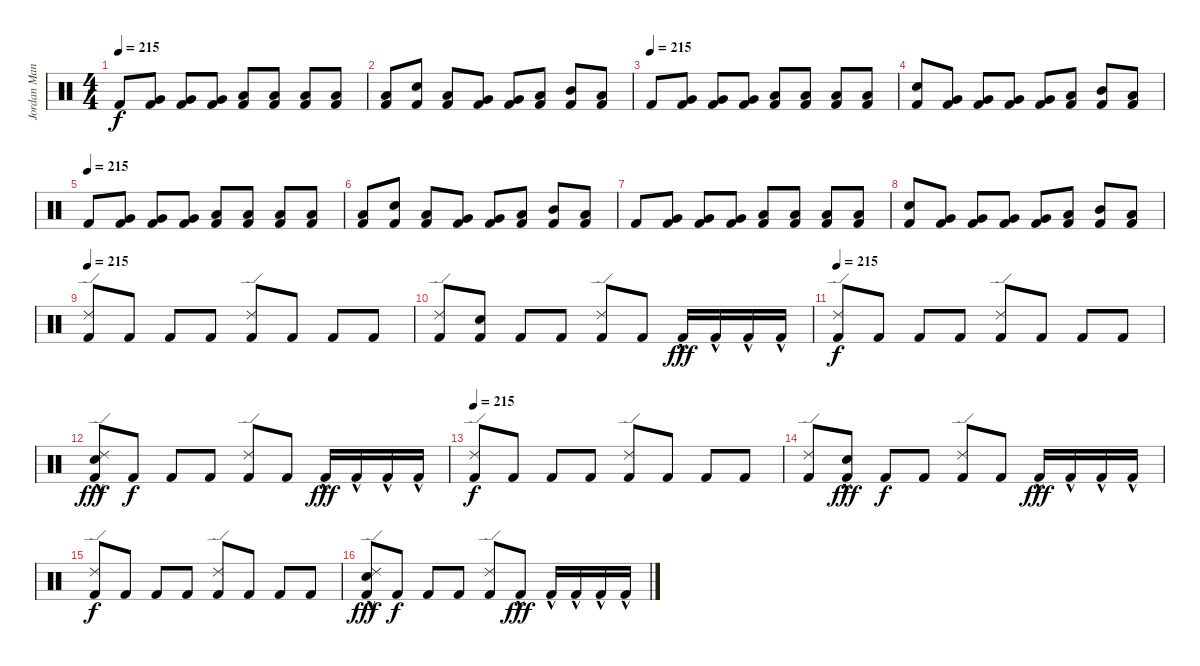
\track ("Jordan Mancino" "Jordan Man") {instrument percussion}
\staff {score}
\articulation defaults
\ts (4 4)
\tempo 215
\clef neutral
\ks c "Kick (hit) 2".8{dy f}
("Very Low Tom (hit)" "Kick (hit) 2").8 ("Very Low Tom (hit)" "Kick (hit) 2").8 ("Very Low Tom (hit)" "Kick (hit) 2").8 ("Low Tom (hit)" "Kick (hit) 2").8 ("Low Tom (hit)" "Kick (hit) 2").8 ("Low Tom (hit)" "Kick (hit) 2").8 ("Low Tom (hit)" "Kick (hit) 2").8 |
("Low Tom (hit)" "Kick (hit) 2").8 ("Electric Snare (hit)" "Kick (hit) 2").8 ("Low Tom (hit)" "Kick (hit) 2").8 ("Very Low Tom (hit)" "Kick (hit) 2").8 ("Very Low Tom (hit)" "Kick (hit) 2").8 ("Low Tom (hit)" "Kick (hit) 2").8 ("Mid Tom (hit)" "Kick (hit) 2").8 ("Low Tom (hit)" "Kick (hit) 2").8 |
\tempo (215)
"Kick (hit) 2".8 ("Very Low Tom (hit)" "Kick (hit) 2").8 ("Very Low Tom (hit)" "Kick (hit) 2").8 ("Very Low Tom (hit)" "Kick (hit) 2").8 ("Low Tom (hit)" "Kick (hit) 2").8 ("Low Tom (hit)" "Kick (hit) 2").8 ("Low Tom (hit)" "Kick (hit) 2").8 ("Low Tom (hit)" "Kick (hit) 2").8 |
("Electric Snare (hit)" "Kick (hit) 2").8 ("Very Low Tom (hit)" "Kick (hit) 2").8 ("Very Low Tom (hit)" "Kick (hit) 2").8 ("Very Low Tom (hit)" "Kick (hit) 2").8 ("Very Low Tom (hit)" "Kick (hit) 2").8 ("Low Tom (hit)" "Kick (hit) 2").8 ("Mid Tom (hit)" "Kick (hit) 2").8 ("Low Tom (hit)" "Kick (hit) 2").8 |
\tempo (215)
"Kick (hit) 2".8 ("Very Low Tom (hit)" "Kick (hit) 2").8 ("Very Low Tom (hit)" "Kick (hit) 2").8 ("Very Low Tom (hit)" "Kick (hit) 2").8 ("Low Tom (hit)" "Kick (hit) 2").8 ("Low Tom (hit)" "Kick (hit) 2").8 ("Low Tom (hit)" "Kick (hit) 2").8 ("Low Tom (hit)" "Kick (hit) 2").8 |
("Low Tom (hit)" "Kick (hit) 2").8 ("Electric Snare (hit)" "Kick (hit) 2").8 ("Low Tom (hit)" "Kick (hit) 2").8 ("Very Low Tom (hit)" "Kick (hit) 2").8 ("Very Low Tom (hit)" "Kick (hit) 2").8 ("Low Tom (hit)" "Kick (hit) 2").8 ("Mid Tom (hit)" "Kick (hit) 2").8 ("Low Tom (hit)" "Kick (hit) 2").8 |
"Kick (hit) 2".8 ("Very Low Tom (hit)" "Kick (hit) 2").8 ("Very Low Tom (hit)" "Kick (hit) 2").8 ("Very Low Tom (hit)" "Kick (hit) 2").8 ("Low Tom (hit)" "Kick (hit) 2").8 ("Low Tom (hit)" "Kick (hit) 2").8 ("Low Tom (hit)" "Kick (hit) 2").8 ("Low Tom (hit)" "Kick (hit) 2").8 |
("Electric Snare (hit)" "Kick (hit) 2").8 ("Very Low Tom (hit)" "Kick (hit) 2").8 ("Very Low Tom (hit)" "Kick (hit) 2").8 ("Very Low Tom (hit)" "Kick (hit) 2").8 ("Very Low Tom (hit)" "Kick (hit) 2").8 ("Low Tom (hit)" "Kick (hit) 2").8 ("Mid Tom (hit)" "Kick (hit) 2").8 ("Low Tom (hit)" "Kick (hit) 2").8 |
\tempo 215
("Ride (edge) 2" "Kick (hit) 2").8 "Kick (hit) 2".8 "Kick (hit) 2".8 "Kick (hit) 2".8 ("Ride (edge) 2" "Kick (hit) 2").8 "Kick (hit) 2".8 "Kick (hit) 2".8 "Kick (hit) 2".8 |
("Ride (edge) 2" "Kick (hit) 2").8 ("Electric Snare (hit)" "Kick (hit) 2").8 "Kick (hit) 2".8 "Kick (hit) 2".8 ("Ride (edge) 2" "Kick (hit) 2").8 "Kick (hit) 2".8 "Kick (hit) 2"{hac}.16{dy fff} "Kick (hit) 2"{hac}.16 "Kick (hit) 2"{hac}.16 "Kick (hit) 2"{hac}.16 |
\tempo 215
("Ride (edge) 2" "Kick (hit) 2").8{dy f} "Kick (hit) 2".8 "Kick (hit) 2".8 "Kick (hit) 2".8 ("Ride (edge) 2" "Kick (hit) 2").8 "Kick (hit) 2".8 "Kick (hit) 2".8 "Kick (hit) 2".8 |
("Ride (edge) 2" "Electric Snare (hit)"{hac} "Kick (hit) 2").8{dy fff} "Kick (hit) 2".8{dy f} "Kick (hit) 2".8 "Kick (hit) 2".8 ("Ride (edge) 2" "Kick (hit) 2").8 "Kick (hit) 2".8 "Kick (hit) 2"{hac}.16{dy fff} "Kick (hit) 2"{hac}.16 "Kick (hit) 2"{hac}.16 "Kick (hit) 2"{hac}.16 |
\tempo 215
("Ride (edge) 2" "Kick (hit) 2").8{dy f} "Kick (hit) 2".8 "Kick (hit) 2".8 "Kick (hit) 2".8 ("Ride (edge) 2" "Kick (hit) 2").8 "Kick (hit) 2".8 "Kick (hit) 2".8 "Kick (hit) 2".8 |
("Ride (edge) 2" "Kick (hit) 2").8 ("Electric Snare (hit)"{hac} "Kick (hit) 2").8{dy fff} "Kick (hit) 2".8{dy f} "Kick (hit) 2".8 ("Ride (edge) 2" "Kick (hit) 2").8 "Kick (hit) 2".8 "Kick (hit) 2"{hac}.16{dy fff} "Kick (hit) 2"{hac}.16 "Kick (hit) 2"{hac}.16 "Kick (hit) 2"{hac}.16 |
("Ride (edge) 2" "Kick (hit) 2").8{dy f} "Kick (hit) 2".8 "Kick (hit) 2".8 "Kick (hit) 2".8 ("Ride (edge) 2" "Kick (hit) 2").8 "Kick (hit) 2".8 "Kick (hit) 2".8 "Kick (hit) 2".8 |
("Ride (edge) 2" "Electric Snare (hit)"{hac} "Kick (hit) 2").8{dy fff} "Kick (hit) 2".8{dy f} "Kick (hit) 2".8 "Kick (hit) 2".8 ("Ride (edge) 2" "Kick (hit) 2").8 "Kick (hit) 2"{hac}.8{dy fff} "Kick (hit) 2"{hac}.16 "Kick (hit) 2"{hac}.16 "Kick (hit) 2"{hac}.16 "Kick (hit) 2"{hac}.16
